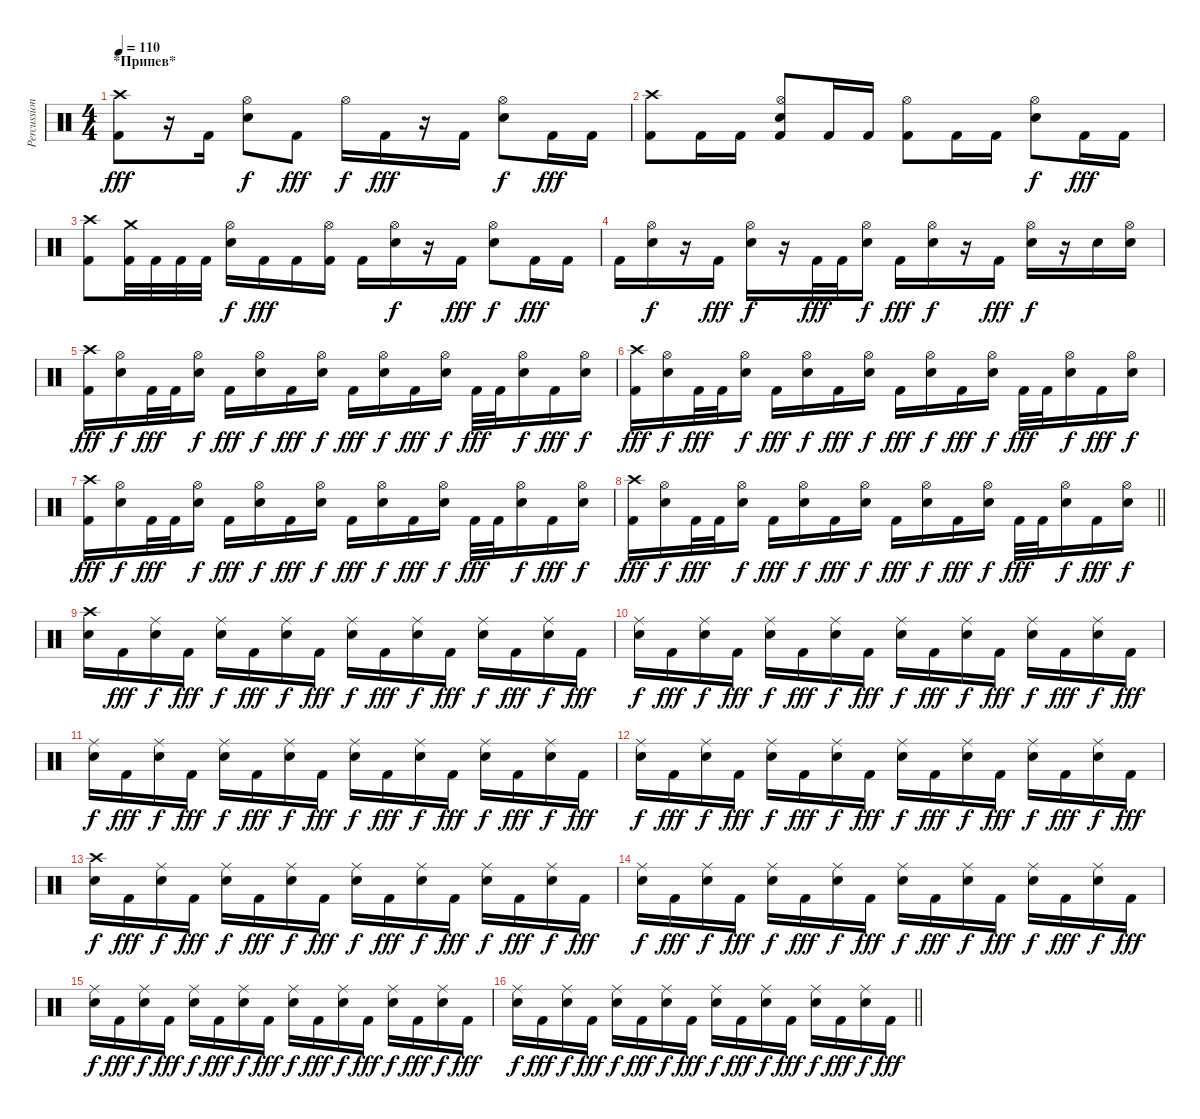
\track ("Percussion" "Percussion") {instrument percussion}
\staff {score}
\articulation defaults
\ts (4 4)
\section ("" "*Припев*")
\tempo 110
\clef neutral
\ks c
("Crash high (hit)" "Kick (hit) 2").8{dy fff} r.16 "Kick (hit) 2".16 ("Hi-Hat (open)" "Snare (hit) 2").8{dy f} "Kick (hit) 2".8{dy fff} "Hi-Hat (open)".16{dy f} "Kick (hit) 2".16{dy fff} r.16 "Kick (hit) 2".16 ("Hi-Hat (open)" "Snare (hit) 2").8{dy f} "Kick (hit) 2".16{dy fff} "Kick (hit) 2".16 |
("Crash high (hit)" "Kick (hit) 2").8 "Kick (hit) 2".16 "Kick (hit) 2".16 ("Hi-Hat (open)" "Snare (hit) 2" "Kick (hit) 2").8 "Kick (hit) 2".16 "Kick (hit) 2".16 ("Hi-Hat (open)" "Kick (hit) 2").8 "Kick (hit) 2".16 "Kick (hit) 2".16 ("Hi-Hat (open)" "Snare (hit) 2").8{dy f} "Kick (hit) 2".16{dy fff} "Kick (hit) 2".16 |
("Crash high (hit)" "Kick (hit) 2").8 ("Crash medium (hit)" "Kick (hit) 2").32 "Kick (hit) 2".32 "Kick (hit) 2".32 "Kick (hit) 2".32 ("Hi-Hat (open)" "Snare (hit) 2").16{dy f} "Kick (hit) 2".16{dy fff} "Kick (hit) 2".16 ("Hi-Hat (open)" "Kick (hit) 2").16 "Kick (hit) 2".16 ("Hi-Hat (open)" "Snare (hit) 2").16{dy f} r.16 "Kick (hit) 2".16{dy fff} ("Hi-Hat (open)" "Snare (hit) 2").8{dy f} "Kick (hit) 2".16{dy fff} "Kick (hit) 2".16 |
"Kick (hit) 2".16 ("Hi-Hat (open)" "Snare (hit) 2").16{dy f} r.16 "Kick (hit) 2".16{dy fff} ("Hi-Hat (open)" "Snare (hit) 2").16{dy f} r.16 "Kick (hit) 2".32{dy fff} "Kick (hit) 2".32 ("Hi-Hat (open)" "Snare (hit) 2").16{dy f} "Kick (hit) 2".16{dy fff} ("Hi-Hat (open)" "Snare (hit) 2").16{dy f} r.16 "Kick (hit) 2".16{dy fff} ("Hi-Hat (open)" "Snare (hit) 2").16{dy f} r.16 "Snare (hit) 2".16 ("Hi-Hat (open)" "Snare (hit) 2").16 |
("Crash high (hit)" "Kick (hit) 2").16{dy fff} ("Hi-Hat (open)" "Snare (hit) 2").16{dy f} "Kick (hit) 2".32{dy fff} "Kick (hit) 2".32 ("Hi-Hat (open)" "Snare (hit) 2").16{dy f} "Kick (hit) 2".16{dy fff} ("Hi-Hat (open)" "Snare (hit) 2").16{dy f} "Kick (hit) 2".16{dy fff} ("Hi-Hat (open)" "Snare (hit) 2").16{dy f} "Kick (hit) 2".16{dy fff} ("Hi-Hat (open)" "Snare (hit) 2").16{dy f} "Kick (hit) 2".16{dy fff} ("Hi-Hat (open)" "Snare (hit) 2").16{dy f} "Kick (hit) 2".32{dy fff} "Kick (hit) 2".32 ("Hi-Hat (open)" "Snare (hit) 2").16{dy f} "Kick (hit) 2".16{dy fff} ("Hi-Hat (open)" "Snare (hit) 2").16{dy f} |
("Crash high (hit)" "Kick (hit) 2").16{dy fff} ("Hi-Hat (open)" "Snare (hit) 2").16{dy f} "Kick (hit) 2".32{dy fff} "Kick (hit) 2".32 ("Hi-Hat (open)" "Snare (hit) 2").16{dy f} "Kick (hit) 2".16{dy fff} ("Hi-Hat (open)" "Snare (hit) 2").16{dy f} "Kick (hit) 2".16{dy fff} ("Hi-Hat (open)" "Snare (hit) 2").16{dy f} "Kick (hit) 2".16{dy fff} ("Hi-Hat (open)" "Snare (hit) 2").16{dy f} "Kick (hit) 2".16{dy fff} ("Hi-Hat (open)" "Snare (hit) 2").16{dy f} "Kick (hit) 2".32{dy fff} "Kick (hit) 2".32 ("Hi-Hat (open)" "Snare (hit) 2").16{dy f} "Kick (hit) 2".16{dy fff} ("Hi-Hat (open)" "Snare (hit) 2").16{dy f} |
("Crash high (hit)" "Kick (hit) 2").16{dy fff} ("Hi-Hat (open)" "Snare (hit) 2").16{dy f} "Kick (hit) 2".32{dy fff} "Kick (hit) 2".32 ("Hi-Hat (open)" "Snare (hit) 2").16{dy f} "Kick (hit) 2".16{dy fff} ("Hi-Hat (open)" "Snare (hit) 2").16{dy f} "Kick (hit) 2".16{dy fff} ("Hi-Hat (open)" "Snare (hit) 2").16{dy f} "Kick (hit) 2".16{dy fff} ("Hi-Hat (open)" "Snare (hit) 2").16{dy f} "Kick (hit) 2".16{dy fff} ("Hi-Hat (open)" "Snare (hit) 2").16{dy f} "Kick (hit) 2".32{dy fff} "Kick (hit) 2".32 ("Hi-Hat (open)" "Snare (hit) 2").16{dy f} "Kick (hit) 2".16{dy fff} ("Hi-Hat (open)" "Snare (hit) 2").16{dy f} |
\barLineRight lightlight
("Crash high (hit)" "Kick (hit) 2").16{dy fff} ("Hi-Hat (open)" "Snare (hit) 2").16{dy f} "Kick (hit) 2".32{dy fff} "Kick (hit) 2".32 ("Hi-Hat (open)" "Snare (hit) 2").16{dy f} "Kick (hit) 2".16{dy fff} ("Hi-Hat (open)" "Snare (hit) 2").16{dy f} "Kick (hit) 2".16{dy fff} ("Hi-Hat (open)" "Snare (hit) 2").16{dy f} "Kick (hit) 2".16{dy fff} ("Hi-Hat (open)" "Snare (hit) 2").16{dy f} "Kick (hit) 2".16{dy fff} ("Hi-Hat (open)" "Snare (hit) 2").16{dy f} "Kick (hit) 2".32{dy fff} "Kick (hit) 2".32 ("Hi-Hat (open)" "Snare (hit) 2").16{dy f} "Kick (hit) 2".16{dy fff} ("Hi-Hat (open)" "Snare (hit) 2").16{dy f} |
\section ("" "")
("Crash high (hit)" "Snare (hit) 2").16 "Kick (hit) 2".16{dy fff} ("Ride (middle)" "Snare (hit) 2").16{dy f} "Kick (hit) 2".16{dy fff} ("Ride (middle)" "Snare (hit) 2").16{dy f} "Kick (hit) 2".16{dy fff} ("Ride (middle)" "Snare (hit) 2").16{dy f} "Kick (hit) 2".16{dy fff} ("Ride (middle)" "Snare (hit) 2").16{dy f} "Kick (hit) 2".16{dy fff} ("Ride (middle)" "Snare (hit) 2").16{dy f} "Kick (hit) 2".16{dy fff} ("Ride (middle)" "Snare (hit) 2").16{dy f} "Kick (hit) 2".16{dy fff} ("Ride (middle)" "Snare (hit) 2").16{dy f} "Kick (hit) 2".16{dy fff} |
("Ride (middle)" "Snare (hit) 2").16{dy f} "Kick (hit) 2".16{dy fff} ("Ride (middle)" "Snare (hit) 2").16{dy f} "Kick (hit) 2".16{dy fff} ("Ride (middle)" "Snare (hit) 2").16{dy f} "Kick (hit) 2".16{dy fff} ("Ride (middle)" "Snare (hit) 2").16{dy f} "Kick (hit) 2".16{dy fff} ("Ride (middle)" "Snare (hit) 2").16{dy f} "Kick (hit) 2".16{dy fff} ("Ride (middle)" "Snare (hit) 2").16{dy f} "Kick (hit) 2".16{dy fff} ("Ride (middle)" "Snare (hit) 2").16{dy f} "Kick (hit) 2".16{dy fff} ("Ride (middle)" "Snare (hit) 2").16{dy f} "Kick (hit) 2".16{dy fff} |
("Ride (middle)" "Snare (hit) 2").16{dy f} "Kick (hit) 2".16{dy fff} ("Ride (middle)" "Snare (hit) 2").16{dy f} "Kick (hit) 2".16{dy fff} ("Ride (middle)" "Snare (hit) 2").16{dy f} "Kick (hit) 2".16{dy fff} ("Ride (middle)" "Snare (hit) 2").16{dy f} "Kick (hit) 2".16{dy fff} ("Ride (middle)" "Snare (hit) 2").16{dy f} "Kick (hit) 2".16{dy fff} ("Ride (middle)" "Snare (hit) 2").16{dy f} "Kick (hit) 2".16{dy fff} ("Ride (middle)" "Snare (hit) 2").16{dy f} "Kick (hit) 2".16{dy fff} ("Ride (middle)" "Snare (hit) 2").16{dy f} "Kick (hit) 2".16{dy fff} |
("Ride (middle)" "Snare (hit) 2").16{dy f} "Kick (hit) 2".16{dy fff} ("Ride (middle)" "Snare (hit) 2").16{dy f} "Kick (hit) 2".16{dy fff} ("Ride (middle)" "Snare (hit) 2").16{dy f} "Kick (hit) 2".16{dy fff} ("Ride (middle)" "Snare (hit) 2").16{dy f} "Kick (hit) 2".16{dy fff} ("Ride (middle)" "Snare (hit) 2").16{dy f} "Kick (hit) 2".16{dy fff} ("Ride (middle)" "Snare (hit) 2").16{dy f} "Kick (hit) 2".16{dy fff} ("Ride (middle)" "Snare (hit) 2").16{dy f} "Kick (hit) 2".16{dy fff} ("Ride (middle)" "Snare (hit) 2").16{dy f} "Kick (hit) 2".16{dy fff} |
("Crash high (hit)" "Snare (hit) 2").16{dy f} "Kick (hit) 2".16{dy fff} ("Ride (middle)" "Snare (hit) 2").16{dy f} "Kick (hit) 2".16{dy fff} ("Ride (middle)" "Snare (hit) 2").16{dy f} "Kick (hit) 2".16{dy fff} ("Ride (middle)" "Snare (hit) 2").16{dy f} "Kick (hit) 2".16{dy fff} ("Ride (middle)" "Snare (hit) 2").16{dy f} "Kick (hit) 2".16{dy fff} ("Ride (middle)" "Snare (hit) 2").16{dy f} "Kick (hit) 2".16{dy fff} ("Ride (middle)" "Snare (hit) 2").16{dy f} "Kick (hit) 2".16{dy fff} ("Ride (middle)" "Snare (hit) 2").16{dy f} "Kick (hit) 2".16{dy fff} |
("Ride (middle)" "Snare (hit) 2").16{dy f} "Kick (hit) 2".16{dy fff} ("Ride (middle)" "Snare (hit) 2").16{dy f} "Kick (hit) 2".16{dy fff} ("Ride (middle)" "Snare (hit) 2").16{dy f} "Kick (hit) 2".16{dy fff} ("Ride (middle)" "Snare (hit) 2").16{dy f} "Kick (hit) 2".16{dy fff} ("Ride (middle)" "Snare (hit) 2").16{dy f} "Kick (hit) 2".16{dy fff} ("Ride (middle)" "Snare (hit) 2").16{dy f} "Kick (hit) 2".16{dy fff} ("Ride (middle)" "Snare (hit) 2").16{dy f} "Kick (hit) 2".16{dy fff} ("Ride (middle)" "Snare (hit) 2").16{dy f} "Kick (hit) 2".16{dy fff} |
("Ride (middle)" "Snare (hit) 2").16{dy f} "Kick (hit) 2".16{dy fff} ("Ride (middle)" "Snare (hit) 2").16{dy f} "Kick (hit) 2".16{dy fff} ("Ride (middle)" "Snare (hit) 2").16{dy f} "Kick (hit) 2".16{dy fff} ("Ride (middle)" "Snare (hit) 2").16{dy f} "Kick (hit) 2".16{dy fff} ("Ride (middle)" "Snare (hit) 2").16{dy f} "Kick (hit) 2".16{dy fff} ("Ride (middle)" "Snare (hit) 2").16{dy f} "Kick (hit) 2".16{dy fff} ("Ride (middle)" "Snare (hit) 2").16{dy f} "Kick (hit) 2".16{dy fff} ("Ride (middle)" "Snare (hit) 2").16{dy f} "Kick (hit) 2".16{dy fff} |
\barLineRight lightlight
("Ride (middle)" "Snare (hit) 2").16{dy f} "Kick (hit) 2".16{dy fff} ("Ride (middle)" "Snare (hit) 2").16{dy f} "Kick (hit) 2".16{dy fff} ("Ride (middle)" "Snare (hit) 2").16{dy f} "Kick (hit) 2".16{dy fff} ("Ride (middle)" "Snare (hit) 2").16{dy f} "Kick (hit) 2".16{dy fff} ("Ride (middle)" "Snare (hit) 2").16{dy f} "Kick (hit) 2".16{dy fff} ("Ride (middle)" "Snare (hit) 2").16{dy f} "Kick (hit) 2".16{dy fff} ("Ride (middle)" "Snare (hit) 2").16{dy f} "Kick (hit) 2".16{dy fff} ("Ride (middle)" "Snare (hit) 2").16{dy f} "Kick (hit) 2".16{dy fff}
